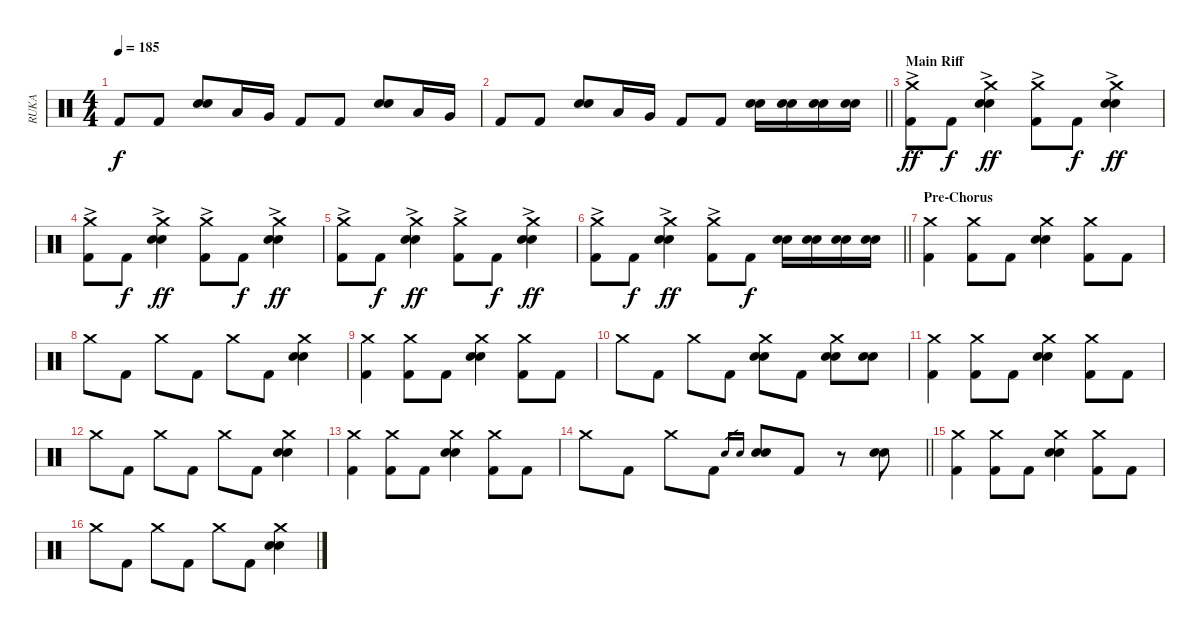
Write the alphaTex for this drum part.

\track ("RUKA" "RUKA") {instrument percussion}
\staff {score}
\articulation defaults
\ts (4 4)
\tempo 185
\clef neutral
\ks c "Kick (hit) 2".8{dy f} "Kick (hit) 2".8
("Electric Snare (hit)" "Snare (hit) 2").8 "Low Tom (hit)".16 "Very Low Tom (hit)".16 "Kick (hit) 2".8 "Kick (hit) 2".8 ("Electric Snare (hit)" "Snare (hit) 2").8 "Low Tom (hit)".16 "Very Low Tom (hit)".16 |
\barLineRight lightlight "Kick (hit) 2".8 "Kick (hit) 2".8
("Electric Snare (hit)" "Snare (hit) 2").8 "Low Tom (hit)".16 "Very Low Tom (hit)".16 "Kick (hit) 2".8 "Kick (hit) 2".8 ("Electric Snare (hit)" "Snare (hit) 2").16 ("Electric Snare (hit)" "Snare (hit) 2").16 ("Electric Snare (hit)" "Snare (hit) 2").16 ("Electric Snare (hit)" "Snare (hit) 2").16 |
\section ("" "Main Riff")
("Crash medium (hit)"{ac} "Kick (hit) 2").8{dy ff} "Kick (hit) 2".8{dy f} ("Crash medium (hit)"{ac} "Snare (hit) 2" "Electric Snare (hit)").4{dy ff} ("Crash medium (hit)"{ac} "Kick (hit) 2").8 "Kick (hit) 2".8{dy f} ("Crash medium (hit)"{ac} "Snare (hit) 2" "Electric Snare (hit)").4{dy ff} |
("Crash medium (hit)"{ac} "Kick (hit) 2").8 "Kick (hit) 2".8{dy f} ("Crash medium (hit)"{ac} "Snare (hit) 2" "Electric Snare (hit)").4{dy ff} ("Crash medium (hit)"{ac} "Kick (hit) 2").8 "Kick (hit) 2".8{dy f} ("Crash medium (hit)"{ac} "Snare (hit) 2" "Electric Snare (hit)").4{dy ff} |
("Crash medium (hit)"{ac} "Kick (hit) 2").8 "Kick (hit) 2".8{dy f} ("Crash medium (hit)"{ac} "Snare (hit) 2" "Electric Snare (hit)").4{dy ff} ("Crash medium (hit)"{ac} "Kick (hit) 2").8 "Kick (hit) 2".8{dy f} ("Crash medium (hit)"{ac} "Snare (hit) 2" "Electric Snare (hit)").4{dy ff} |
\barLineRight lightlight
("Crash medium (hit)"{ac} "Kick (hit) 2").8 "Kick (hit) 2".8{dy f} ("Crash medium (hit)"{ac} "Snare (hit) 2" "Electric Snare (hit)").4{dy ff} ("Crash medium (hit)"{ac} "Kick (hit) 2").8 "Kick (hit) 2".8{dy f} ("Snare (hit) 2" "Electric Snare (hit)").16 ("Snare (hit) 2" "Electric Snare (hit)").16 ("Snare (hit) 2" "Electric Snare (hit)").16 ("Snare (hit) 2" "Electric Snare (hit)").16 |
\section ("" "Pre-Chorus")
("Crash medium (hit)" "Kick (hit) 2").4 ("Crash medium (hit)" "Kick (hit) 2").8 "Kick (hit) 2".8 ("Crash medium (hit)" "Snare (hit) 2" "Electric Snare (hit)").4 ("Crash medium (hit)" "Kick (hit) 2").8 "Kick (hit) 2".8 |
"Crash medium (hit)".8 "Kick (hit) 2".8 "Crash medium (hit)".8 "Kick (hit) 2".8 "Crash medium (hit)".8 "Kick (hit) 2".8 ("Crash medium (hit)" "Snare (hit) 2" "Electric Snare (hit)").4 |
("Crash medium (hit)" "Kick (hit) 2").4 ("Crash medium (hit)" "Kick (hit) 2").8 "Kick (hit) 2".8 ("Crash medium (hit)" "Snare (hit) 2" "Electric Snare (hit)").4 ("Crash medium (hit)" "Kick (hit) 2").8 "Kick (hit) 2".8 |
"Crash medium (hit)".8 "Kick (hit) 2".8 "Crash medium (hit)".8 "Kick (hit) 2".8 ("Crash medium (hit)" "Snare (hit) 2" "Electric Snare (hit)").8 "Kick (hit) 2".8 ("Crash medium (hit)" "Snare (hit) 2" "Electric Snare (hit)").8 ("Snare (hit) 2" "Electric Snare (hit)").8 |
("Crash medium (hit)" "Kick (hit) 2").4 ("Crash medium (hit)" "Kick (hit) 2").8 "Kick (hit) 2".8 ("Crash medium (hit)" "Snare (hit) 2" "Electric Snare (hit)").4 ("Crash medium (hit)" "Kick (hit) 2").8 "Kick (hit) 2".8 |
"Crash medium (hit)".8 "Kick (hit) 2".8 "Crash medium (hit)".8 "Kick (hit) 2".8 "Crash medium (hit)".8 "Kick (hit) 2".8 ("Crash medium (hit)" "Snare (hit) 2" "Electric Snare (hit)").4 |
("Crash medium (hit)" "Kick (hit) 2").4 ("Crash medium (hit)" "Kick (hit) 2").8 "Kick (hit) 2".8 ("Crash medium (hit)" "Snare (hit) 2" "Electric Snare (hit)").4 ("Crash medium (hit)" "Kick (hit) 2").8 "Kick (hit) 2".8 |
\barLineRight lightlight "Crash medium (hit)".8 "Kick (hit) 2".8 "Crash medium (hit)".8 "Kick (hit) 2".8 "Snare (hit) 2".16{gr} "Electric Snare (hit)".16{gr}
("Snare (hit) 2" "Electric Snare (hit)").8 "Kick (hit) 2".8 r.8 ("Snare (hit) 2" "Electric Snare (hit)").8 |
("Crash medium (hit)" "Kick (hit) 2").4 ("Crash medium (hit)" "Kick (hit) 2").8 "Kick (hit) 2".8 ("Crash medium (hit)" "Snare (hit) 2" "Electric Snare (hit)").4 ("Crash medium (hit)" "Kick (hit) 2").8 "Kick (hit) 2".8 |
"Crash medium (hit)".8 "Kick (hit) 2".8 "Crash medium (hit)".8 "Kick (hit) 2".8 "Crash medium (hit)".8 "Kick (hit) 2".8 ("Crash medium (hit)" "Snare (hit) 2" "Electric Snare (hit)").4
